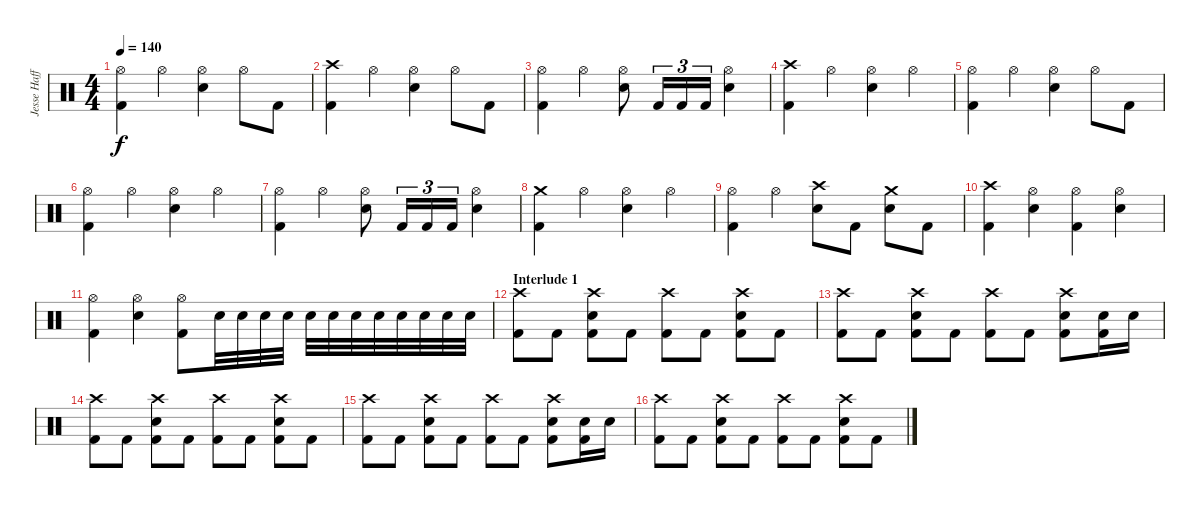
\track ("Jesse Haff" "Jesse Haff") {instrument percussion}
\staff {score}
\articulation defaults
\ts (4 4)
\tempo 140
\clef neutral
\ks c
("Hi-Hat (open)" "Kick (hit) 2").4{dy f} "Hi-Hat (open)".4 ("Hi-Hat (open)" "Electric Snare (hit)").4 "Hi-Hat (open)".8 "Kick (hit) 2".8 |
("Crash high (hit)" "Kick (hit) 2").4 "Hi-Hat (open)".4 ("Hi-Hat (open)" "Electric Snare (hit)").4 "Hi-Hat (open)".8 "Kick (hit) 2".8 |
("Hi-Hat (open)" "Kick (hit) 2").4 "Hi-Hat (open)".4 ("Hi-Hat (open)" "Electric Snare (hit)").8 "Kick (hit) 2".16{tu (3 2)} "Kick (hit) 2".16{tu (3 2)} "Kick (hit) 2".16{tu (3 2)} ("Hi-Hat (open)" "Electric Snare (hit)").4 |
("Crash high (hit)" "Kick (hit) 2").4 "Hi-Hat (open)".4 ("Hi-Hat (open)" "Electric Snare (hit)").4 "Hi-Hat (open)".4 |
("Hi-Hat (open)" "Kick (hit) 2").4 "Hi-Hat (open)".4 ("Hi-Hat (open)" "Electric Snare (hit)").4 "Hi-Hat (open)".8 "Kick (hit) 2".8 |
("Hi-Hat (open)" "Kick (hit) 2").4 "Hi-Hat (open)".4 ("Hi-Hat (open)" "Electric Snare (hit)").4 "Hi-Hat (open)".4 |
("Hi-Hat (open)" "Kick (hit) 2").4 "Hi-Hat (open)".4 ("Hi-Hat (open)" "Electric Snare (hit)").8 "Kick (hit) 2".16{tu (3 2)} "Kick (hit) 2".16{tu (3 2)} "Kick (hit) 2".16{tu (3 2)} ("Hi-Hat (open)" "Electric Snare (hit)").4 |
("Crash medium (hit)" "Kick (hit) 2").4 "Hi-Hat (open)".4 ("Hi-Hat (open)" "Electric Snare (hit)").4 "Hi-Hat (open)".4 |
("Hi-Hat (open)" "Kick (hit) 2").4 "Hi-Hat (open)".4 ("Crash high (hit)" "Electric Snare (hit)").8 "Kick (hit) 2".8 ("Crash medium (hit)" "Electric Snare (hit)").8 "Kick (hit) 2".8 |
("Crash high (hit)" "Kick (hit) 2").4 ("Hi-Hat (open)" "Electric Snare (hit)").4 ("Hi-Hat (open)" "Kick (hit) 2").4 ("Hi-Hat (open)" "Electric Snare (hit)").4 |
("Hi-Hat (open)" "Kick (hit) 2").4 ("Hi-Hat (open)" "Electric Snare (hit)").4 ("Hi-Hat (open)" "Kick (hit) 2").8 "Electric Snare (hit)".32 "Electric Snare (hit)".32 "Electric Snare (hit)".32 "Electric Snare (hit)".32 "Electric Snare (hit)".32 "Electric Snare (hit)".32 "Electric Snare (hit)".32 "Electric Snare (hit)".32 "Electric Snare (hit)".32 "Electric Snare (hit)".32 "Electric Snare (hit)".32 "Electric Snare (hit)".32 |
\section ("" "Interlude 1")
("Crash high (hit)" "Kick (hit) 2").8 "Kick (hit) 2".8 ("Crash high (hit)" "Electric Snare (hit)" "Kick (hit) 2").8 "Kick (hit) 2".8 ("Crash high (hit)" "Kick (hit) 2").8 "Kick (hit) 2".8 ("Crash high (hit)" "Electric Snare (hit)" "Kick (hit) 2").8 "Kick (hit) 2".8 |
("Crash high (hit)" "Kick (hit) 2").8 "Kick (hit) 2".8 ("Crash high (hit)" "Electric Snare (hit)" "Kick (hit) 2").8 "Kick (hit) 2".8 ("Crash high (hit)" "Kick (hit) 2").8 "Kick (hit) 2".8 ("Crash high (hit)" "Electric Snare (hit)" "Kick (hit) 2").8 ("Electric Snare (hit)" "Kick (hit) 2").16 "Electric Snare (hit)".16 |
("Crash high (hit)" "Kick (hit) 2").8 "Kick (hit) 2".8 ("Crash high (hit)" "Electric Snare (hit)" "Kick (hit) 2").8 "Kick (hit) 2".8 ("Crash high (hit)" "Kick (hit) 2").8 "Kick (hit) 2".8 ("Crash high (hit)" "Electric Snare (hit)" "Kick (hit) 2").8 "Kick (hit) 2".8 |
("Crash high (hit)" "Kick (hit) 2").8 "Kick (hit) 2".8 ("Crash high (hit)" "Electric Snare (hit)" "Kick (hit) 2").8 "Kick (hit) 2".8 ("Crash high (hit)" "Kick (hit) 2").8 "Kick (hit) 2".8 ("Crash high (hit)" "Electric Snare (hit)" "Kick (hit) 2").8 ("Electric Snare (hit)" "Kick (hit) 2").16 "Electric Snare (hit)".16 |
("Crash high (hit)" "Kick (hit) 2").8 "Kick (hit) 2".8 ("Crash high (hit)" "Electric Snare (hit)" "Kick (hit) 2").8 "Kick (hit) 2".8 ("Crash high (hit)" "Kick (hit) 2").8 "Kick (hit) 2".8 ("Crash high (hit)" "Electric Snare (hit)" "Kick (hit) 2").8 "Kick (hit) 2".8
